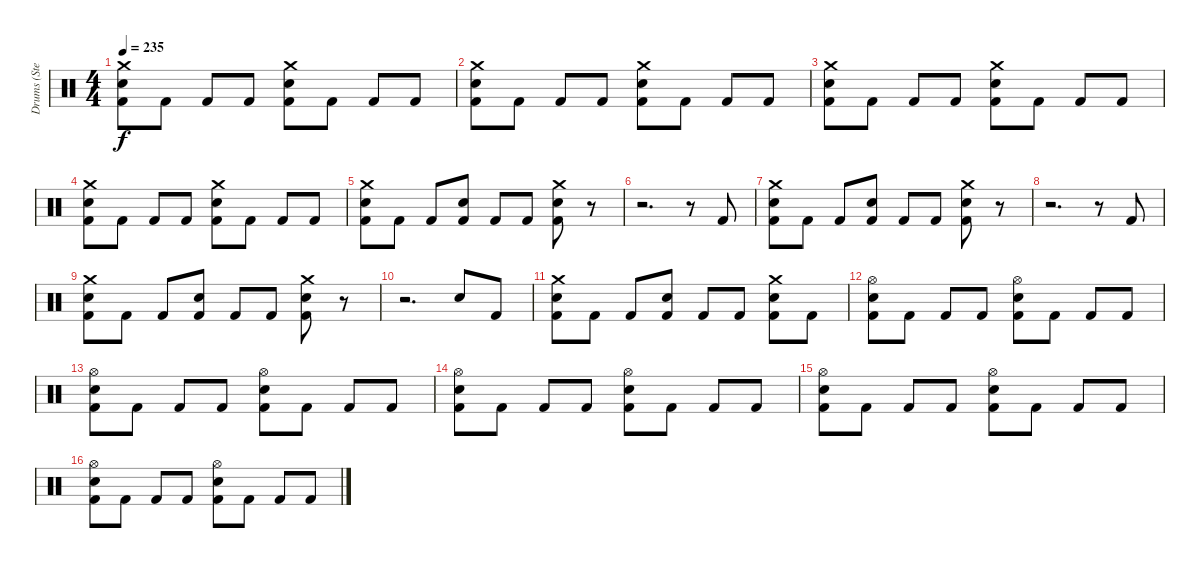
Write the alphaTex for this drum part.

\track ("Drums (Steve Jocz)" "Drums (Ste") {instrument percussion}
\staff {score}
\articulation defaults
\ts (4 4)
\tempo 235
\clef neutral
\ks c
("Crash medium (hit)" "Electric Snare (hit)" "Kick (hit) 2").8{dy f} "Kick (hit) 2".8 "Kick (hit) 2".8 "Kick (hit) 2".8 ("Crash medium (hit)" "Electric Snare (hit)" "Kick (hit) 2").8 "Kick (hit) 2".8 "Kick (hit) 2".8 "Kick (hit) 2".8 |
("Crash medium (hit)" "Electric Snare (hit)" "Kick (hit) 2").8 "Kick (hit) 2".8 "Kick (hit) 2".8 "Kick (hit) 2".8 ("Crash medium (hit)" "Electric Snare (hit)" "Kick (hit) 2").8 "Kick (hit) 2".8 "Kick (hit) 2".8 "Kick (hit) 2".8 |
("Crash medium (hit)" "Electric Snare (hit)" "Kick (hit) 2").8 "Kick (hit) 2".8 "Kick (hit) 2".8 "Kick (hit) 2".8 ("Crash medium (hit)" "Electric Snare (hit)" "Kick (hit) 2").8 "Kick (hit) 2".8 "Kick (hit) 2".8 "Kick (hit) 2".8 |
("Crash medium (hit)" "Electric Snare (hit)" "Kick (hit) 2").8 "Kick (hit) 2".8 "Kick (hit) 2".8 "Kick (hit) 2".8 ("Crash medium (hit)" "Electric Snare (hit)" "Kick (hit) 2").8 "Kick (hit) 2".8 "Kick (hit) 2".8 "Kick (hit) 2".8 |
("Crash medium (hit)" "Electric Snare (hit)" "Kick (hit) 2").8 "Kick (hit) 2".8 "Kick (hit) 2".8 ("Electric Snare (hit)" "Kick (hit) 2").8 "Kick (hit) 2".8 "Kick (hit) 2".8 ("Crash medium (hit)" "Electric Snare (hit)" "Kick (hit) 2").8 r.8 |
r.2{d} r.8 "Kick (hit) 2".8 |
("Crash medium (hit)" "Electric Snare (hit)" "Kick (hit) 2").8 "Kick (hit) 2".8 "Kick (hit) 2".8 ("Electric Snare (hit)" "Kick (hit) 2").8 "Kick (hit) 2".8 "Kick (hit) 2".8 ("Crash medium (hit)" "Electric Snare (hit)" "Kick (hit) 2").8 r.8 |
r.2{d} r.8 "Kick (hit) 2".8 |
("Crash medium (hit)" "Electric Snare (hit)" "Kick (hit) 2").8 "Kick (hit) 2".8 "Kick (hit) 2".8 ("Electric Snare (hit)" "Kick (hit) 2").8 "Kick (hit) 2".8 "Kick (hit) 2".8 ("Crash medium (hit)" "Electric Snare (hit)" "Kick (hit) 2").8 r.8 |
r.2{d} "Snare (hit)".8 "Kick (hit) 2".8 |
("Crash medium (hit)" "Electric Snare (hit)" "Kick (hit) 2").8 "Kick (hit) 2".8 "Kick (hit) 2".8 ("Electric Snare (hit)" "Kick (hit) 2").8 "Kick (hit) 2".8 "Kick (hit) 2".8 ("Crash medium (hit)" "Electric Snare (hit)" "Kick (hit) 2").8 "Kick (hit) 2".8 |
("Hi-Hat (open)" "Electric Snare (hit)" "Kick (hit) 2").8 "Kick (hit) 2".8 "Kick (hit) 2".8 "Kick (hit) 2".8 ("Hi-Hat (open)" "Electric Snare (hit)" "Kick (hit) 2").8 "Kick (hit) 2".8 "Kick (hit) 2".8 "Kick (hit) 2".8 |
("Hi-Hat (open)" "Electric Snare (hit)" "Kick (hit) 2").8 "Kick (hit) 2".8 "Kick (hit) 2".8 "Kick (hit) 2".8 ("Hi-Hat (open)" "Electric Snare (hit)" "Kick (hit) 2").8 "Kick (hit) 2".8 "Kick (hit) 2".8 "Kick (hit) 2".8 |
("Hi-Hat (open)" "Electric Snare (hit)" "Kick (hit) 2").8 "Kick (hit) 2".8 "Kick (hit) 2".8 "Kick (hit) 2".8 ("Hi-Hat (open)" "Electric Snare (hit)" "Kick (hit) 2").8 "Kick (hit) 2".8 "Kick (hit) 2".8 "Kick (hit) 2".8 |
("Hi-Hat (open)" "Electric Snare (hit)" "Kick (hit) 2").8 "Kick (hit) 2".8 "Kick (hit) 2".8 "Kick (hit) 2".8 ("Hi-Hat (open)" "Electric Snare (hit)" "Kick (hit) 2").8 "Kick (hit) 2".8 "Kick (hit) 2".8 "Kick (hit) 2".8 |
("Hi-Hat (open)" "Electric Snare (hit)" "Kick (hit) 2").8 "Kick (hit) 2".8 "Kick (hit) 2".8 "Kick (hit) 2".8 ("Hi-Hat (open)" "Electric Snare (hit)" "Kick (hit) 2").8 "Kick (hit) 2".8 "Kick (hit) 2".8 "Kick (hit) 2".8
